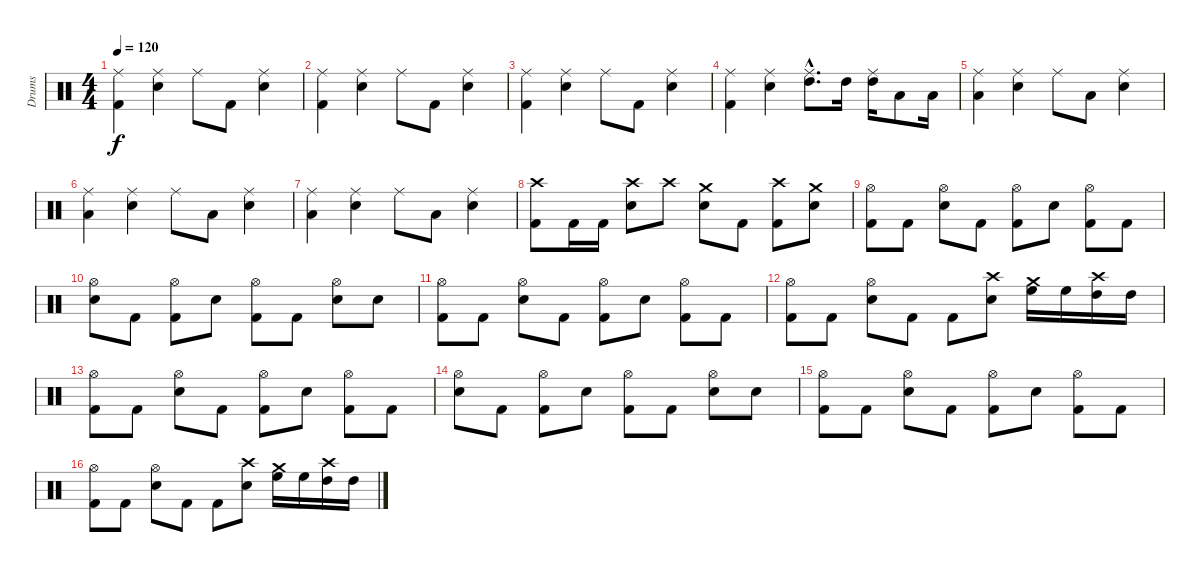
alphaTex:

\track ("Drums" "Drums") {instrument percussion}
\staff {score}
\articulation defaults
\ts (4 4)
\tempo 120
\clef neutral
\ks c
("Ride (middle)" "Kick (hit) 2").4{dy f} ("Ride (middle)" "Snare (hit) 2").4 "Ride (middle)".8 "Kick (hit) 2".8 ("Ride (middle)" "Snare (hit) 2").4 |
("Ride (middle)" "Kick (hit) 2").4 ("Ride (middle)" "Snare (hit) 2").4 "Ride (middle)".8 "Kick (hit) 2".8 ("Ride (middle)" "Snare (hit) 2").4 |
("Ride (middle)" "Kick (hit) 2").4 ("Ride (middle)" "Snare (hit) 2").4 "Ride (middle)".8 "Kick (hit) 2".8 ("Ride (middle)" "Snare (hit) 2").4 |
("Ride (middle)" "Kick (hit) 2").4 ("Ride (middle)" "Snare (hit) 2").4 ("Ride (middle)"{hac} "High Tom (hit)"{hac}).8{d} "High Tom (hit)".16 ("Ride (middle)" "High Tom (hit)").16 "Low Tom (hit)".8 "Low Tom (hit)".16 |
("Ride (middle)" "Low Floor Tom (hit)").4 ("Ride (middle)" "Snare (hit) 2").4 "Ride (middle)".8 "Low Floor Tom (hit)".8 ("Ride (middle)" "Snare (hit) 2").4 |
("Ride (middle)" "Low Floor Tom (hit)").4 ("Ride (middle)" "Snare (hit) 2").4 "Ride (middle)".8 "Low Floor Tom (hit)".8 ("Ride (middle)" "Snare (hit) 2").4 |
("Ride (middle)" "Low Floor Tom (hit)").4 ("Ride (middle)" "Snare (hit) 2").4 "Ride (middle)".8 "Low Floor Tom (hit)".8 ("Ride (middle)" "Snare (hit) 2").4 |
("Crash high (hit)" "Kick (hit) 2").8 "Kick (hit) 2".16 "Kick (hit) 2".16 ("Crash high (hit)" "Snare (hit) 2").8 "Crash high (hit)".8 ("Crash medium (hit)" "Snare (hit) 2").8 "Kick (hit) 2".8 ("Crash high (hit)" "Kick (hit) 2").8 ("Crash medium (hit)" "Snare (hit) 2").8 |
("Hi-Hat (open)" "Kick (hit) 2").8 "Kick (hit) 2".8 ("Hi-Hat (open)" "Snare (hit) 2").8 "Kick (hit) 2".8 ("Hi-Hat (open)" "Kick (hit) 2").8 "Snare (hit) 2".8 ("Hi-Hat (open)" "Kick (hit) 2").8 "Kick (hit) 2".8 |
("Hi-Hat (open)" "Snare (hit) 2").8 "Kick (hit) 2".8 ("Hi-Hat (open)" "Kick (hit) 2").8 "Snare (hit) 2".8 ("Hi-Hat (open)" "Kick (hit) 2").8 "Kick (hit) 2".8 ("Hi-Hat (open)" "Snare (hit) 2").8 "Snare (hit) 2".8 |
("Hi-Hat (open)" "Kick (hit) 2").8 "Kick (hit) 2".8 ("Hi-Hat (open)" "Snare (hit) 2").8 "Kick (hit) 2".8 ("Hi-Hat (open)" "Kick (hit) 2").8 "Snare (hit) 2".8 ("Hi-Hat (open)" "Kick (hit) 2").8 "Kick (hit) 2".8 |
("Hi-Hat (open)" "Kick (hit) 2").8 "Kick (hit) 2".8 ("Hi-Hat (open)" "Snare (hit) 2").8 "Kick (hit) 2".8 "Kick (hit) 2".8 ("Crash high (hit)" "Snare (hit) 2").8 ("Crash medium (hit)" "High Floor Tom (hit)").16 "High Floor Tom (hit)".16 ("Crash high (hit)" "High Tom (hit)").16 "High Tom (hit)".16 |
("Hi-Hat (open)" "Kick (hit) 2").8 "Kick (hit) 2".8 ("Hi-Hat (open)" "Snare (hit) 2").8 "Kick (hit) 2".8 ("Hi-Hat (open)" "Kick (hit) 2").8 "Snare (hit) 2".8 ("Hi-Hat (open)" "Kick (hit) 2").8 "Kick (hit) 2".8 |
("Hi-Hat (open)" "Snare (hit) 2").8 "Kick (hit) 2".8 ("Hi-Hat (open)" "Kick (hit) 2").8 "Snare (hit) 2".8 ("Hi-Hat (open)" "Kick (hit) 2").8 "Kick (hit) 2".8 ("Hi-Hat (open)" "Snare (hit) 2").8 "Snare (hit) 2".8 |
("Hi-Hat (open)" "Kick (hit) 2").8 "Kick (hit) 2".8 ("Hi-Hat (open)" "Snare (hit) 2").8 "Kick (hit) 2".8 ("Hi-Hat (open)" "Kick (hit) 2").8 "Snare (hit) 2".8 ("Hi-Hat (open)" "Kick (hit) 2").8 "Kick (hit) 2".8 |
("Hi-Hat (open)" "Kick (hit) 2").8 "Kick (hit) 2".8 ("Hi-Hat (open)" "Snare (hit) 2").8 "Kick (hit) 2".8 "Kick (hit) 2".8 ("Crash high (hit)" "Snare (hit) 2").8 ("Crash medium (hit)" "High Floor Tom (hit)").16 "High Floor Tom (hit)".16 ("Crash high (hit)" "High Tom (hit)").16 "High Tom (hit)".16
